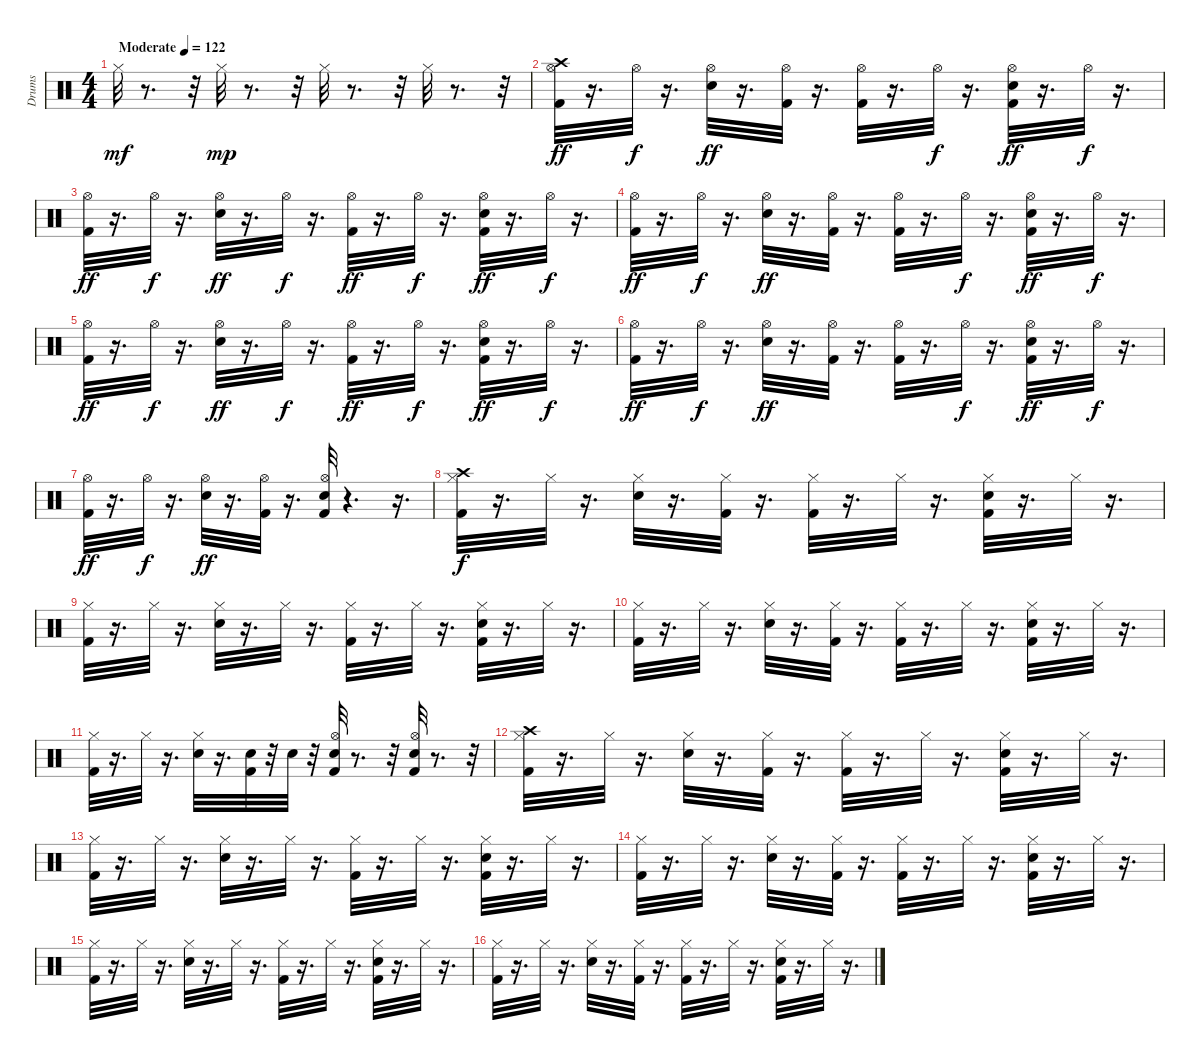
\track ("Drums" "Drums") {instrument percussion}
\staff {score}
\articulation defaults
\ts (4 4)
\tempo (122 "Moderate")
\clef neutral
\ks c "Hi-Hat (closed)".32{dy mf}
r.8{d} r.32 "Hi-Hat (closed)".32{dy mp} r.8{d} r.32 "Hi-Hat (closed)".32 r.8{d} r.32 "Hi-Hat (closed)".32 r.8{d} r.32 |
("Kick (hit) 2" "Hi-Hat (open)" "Crash high (hit)").32{dy ff} r.16{d} "Hi-Hat (open)".32{dy f} r.16{d} ("Snare (hit) 2" "Hi-Hat (open)").32{dy ff} r.16{d} ("Kick (hit) 2" "Hi-Hat (open)").32 r.16{d} ("Kick (hit) 2" "Hi-Hat (open)").32 r.16{d} "Hi-Hat (open)".32{dy f} r.16{d} ("Kick (hit) 2" "Snare (hit) 2" "Hi-Hat (open)").32{dy ff} r.16{d} "Hi-Hat (open)".32{dy f} r.16{d} |
("Kick (hit) 2" "Hi-Hat (open)").32{dy ff} r.16{d} "Hi-Hat (open)".32{dy f} r.16{d} ("Snare (hit) 2" "Hi-Hat (open)").32{dy ff} r.16{d} "Hi-Hat (open)".32{dy f} r.16{d} ("Kick (hit) 2" "Hi-Hat (open)").32{dy ff} r.16{d} "Hi-Hat (open)".32{dy f} r.16{d} ("Kick (hit) 2" "Snare (hit) 2" "Hi-Hat (open)").32{dy ff} r.16{d} "Hi-Hat (open)".32{dy f} r.16{d} |
("Kick (hit) 2" "Hi-Hat (open)").32{dy ff} r.16{d} "Hi-Hat (open)".32{dy f} r.16{d} ("Snare (hit) 2" "Hi-Hat (open)").32{dy ff} r.16{d} ("Kick (hit) 2" "Hi-Hat (open)").32 r.16{d} ("Kick (hit) 2" "Hi-Hat (open)").32 r.16{d} "Hi-Hat (open)".32{dy f} r.16{d} ("Kick (hit) 2" "Snare (hit) 2" "Hi-Hat (open)").32{dy ff} r.16{d} "Hi-Hat (open)".32{dy f} r.16{d} |
("Kick (hit) 2" "Hi-Hat (open)").32{dy ff} r.16{d} "Hi-Hat (open)".32{dy f} r.16{d} ("Snare (hit) 2" "Hi-Hat (open)").32{dy ff} r.16{d} "Hi-Hat (open)".32{dy f} r.16{d} ("Kick (hit) 2" "Hi-Hat (open)").32{dy ff} r.16{d} "Hi-Hat (open)".32{dy f} r.16{d} ("Kick (hit) 2" "Snare (hit) 2" "Hi-Hat (open)").32{dy ff} r.16{d} "Hi-Hat (open)".32{dy f} r.16{d} |
("Kick (hit) 2" "Hi-Hat (open)").32{dy ff} r.16{d} "Hi-Hat (open)".32{dy f} r.16{d} ("Snare (hit) 2" "Hi-Hat (open)").32{dy ff} r.16{d} ("Kick (hit) 2" "Hi-Hat (open)").32 r.16{d} ("Kick (hit) 2" "Hi-Hat (open)").32 r.16{d} "Hi-Hat (open)".32{dy f} r.16{d} ("Kick (hit) 2" "Snare (hit) 2" "Hi-Hat (open)").32{dy ff} r.16{d} "Hi-Hat (open)".32{dy f} r.16{d} |
("Kick (hit) 2" "Hi-Hat (open)").32{dy ff} r.16{d} "Hi-Hat (open)".32{dy f} r.16{d} ("Snare (hit) 2" "Hi-Hat (open)").32{dy ff} r.16{d} ("Kick (hit) 2" "Hi-Hat (open)").32 r.16{d} ("Kick (hit) 2" "Snare (hit) 2" "Hi-Hat (open)").32 r.4{d} r.16{d} |
("Kick (hit) 2" "Hi-Hat (closed)" "Crash high (hit)").32{dy f} r.16{d} "Hi-Hat (closed)".32 r.16{d} ("Snare (hit) 2" "Hi-Hat (closed)").32 r.16{d} ("Kick (hit) 2" "Hi-Hat (closed)").32 r.16{d} ("Kick (hit) 2" "Hi-Hat (closed)").32 r.16{d} "Hi-Hat (closed)".32 r.16{d} ("Kick (hit) 2" "Snare (hit) 2" "Hi-Hat (closed)").32 r.16{d} "Hi-Hat (closed)".32 r.16{d} |
("Kick (hit) 2" "Hi-Hat (closed)").32 r.16{d} "Hi-Hat (closed)".32 r.16{d} ("Snare (hit) 2" "Hi-Hat (closed)").32 r.16{d} "Hi-Hat (closed)".32 r.16{d} ("Kick (hit) 2" "Hi-Hat (closed)").32 r.16{d} "Hi-Hat (closed)".32 r.16{d} ("Kick (hit) 2" "Snare (hit) 2" "Hi-Hat (closed)").32 r.16{d} "Hi-Hat (closed)".32 r.16{d} |
("Kick (hit) 2" "Hi-Hat (closed)").32 r.16{d} "Hi-Hat (closed)".32 r.16{d} ("Snare (hit) 2" "Hi-Hat (closed)").32 r.16{d} ("Kick (hit) 2" "Hi-Hat (closed)").32 r.16{d} ("Kick (hit) 2" "Hi-Hat (closed)").32 r.16{d} "Hi-Hat (closed)".32 r.16{d} ("Kick (hit) 2" "Snare (hit) 2" "Hi-Hat (closed)").32 r.16{d} "Hi-Hat (closed)".32 r.16{d} |
("Kick (hit) 2" "Hi-Hat (closed)").32 r.16{d} "Hi-Hat (closed)".32 r.16{d} ("Snare (hit) 2" "Hi-Hat (closed)").32 r.16{d} ("Kick (hit) 2" "Snare (hit) 2").32 r.32 "Snare (hit) 2".32 r.32 ("Kick (hit) 2" "Snare (hit) 2" "Hi-Hat (open)").32 r.8{d} r.32 ("Kick (hit) 2" "Snare (hit) 2" "Hi-Hat (open)").32 r.8{d} r.32 |
("Kick (hit) 2" "Hi-Hat (closed)" "Crash high (hit)").32 r.16{d} "Hi-Hat (closed)".32 r.16{d} ("Snare (hit) 2" "Hi-Hat (closed)").32 r.16{d} ("Kick (hit) 2" "Hi-Hat (closed)").32 r.16{d} ("Kick (hit) 2" "Hi-Hat (closed)").32 r.16{d} "Hi-Hat (closed)".32 r.16{d} ("Kick (hit) 2" "Snare (hit) 2" "Hi-Hat (closed)").32 r.16{d} "Hi-Hat (closed)".32 r.16{d} |
("Kick (hit) 2" "Hi-Hat (closed)").32 r.16{d} "Hi-Hat (closed)".32 r.16{d} ("Snare (hit) 2" "Hi-Hat (closed)").32 r.16{d} "Hi-Hat (closed)".32 r.16{d} ("Kick (hit) 2" "Hi-Hat (closed)").32 r.16{d} "Hi-Hat (closed)".32 r.16{d} ("Kick (hit) 2" "Snare (hit) 2" "Hi-Hat (closed)").32 r.16{d} "Hi-Hat (closed)".32 r.16{d} |
("Kick (hit) 2" "Hi-Hat (closed)").32 r.16{d} "Hi-Hat (closed)".32 r.16{d} ("Snare (hit) 2" "Hi-Hat (closed)").32 r.16{d} ("Kick (hit) 2" "Hi-Hat (closed)").32 r.16{d} ("Kick (hit) 2" "Hi-Hat (closed)").32 r.16{d} "Hi-Hat (closed)".32 r.16{d} ("Kick (hit) 2" "Snare (hit) 2" "Hi-Hat (closed)").32 r.16{d} "Hi-Hat (closed)".32 r.16{d} |
("Kick (hit) 2" "Hi-Hat (closed)").32 r.16{d} "Hi-Hat (closed)".32 r.16{d} ("Snare (hit) 2" "Hi-Hat (closed)").32 r.16{d} "Hi-Hat (closed)".32 r.16{d} ("Kick (hit) 2" "Hi-Hat (closed)").32 r.16{d} "Hi-Hat (closed)".32 r.16{d} ("Kick (hit) 2" "Snare (hit) 2" "Hi-Hat (closed)").32 r.16{d} "Hi-Hat (closed)".32 r.16{d} |
("Kick (hit) 2" "Hi-Hat (closed)").32 r.16{d} "Hi-Hat (closed)".32 r.16{d} ("Snare (hit) 2" "Hi-Hat (closed)").32 r.16{d} ("Kick (hit) 2" "Hi-Hat (closed)").32 r.16{d} ("Kick (hit) 2" "Hi-Hat (closed)").32 r.16{d} "Hi-Hat (closed)".32 r.16{d} ("Kick (hit) 2" "Snare (hit) 2" "Hi-Hat (closed)").32 r.16{d} "Hi-Hat (closed)".32 r.16{d}
